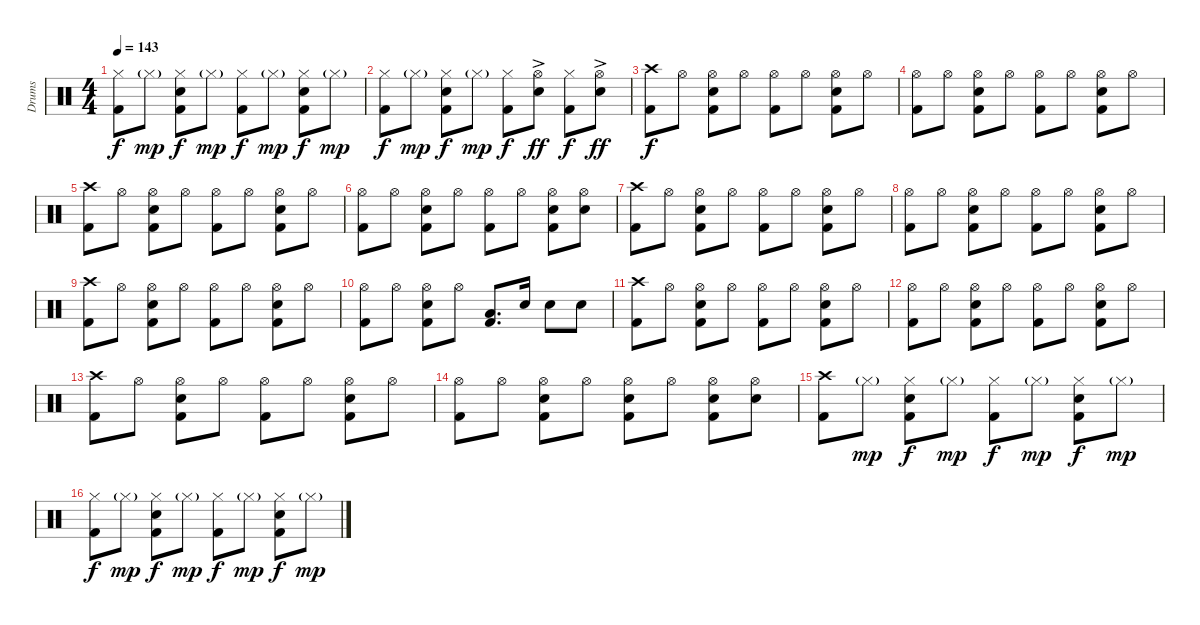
\track ("Drums" "Drums") {instrument percussion}
\staff {score}
\articulation defaults
\ts (4 4)
\tempo 143
\clef neutral
\ks c
("Hi-Hat (closed)" "Kick (hit) 2").8{dy f} "Hi-Hat (closed)"{g}.8{dy mp} ("Hi-Hat (closed)" "Electric Snare (hit)" "Kick (hit) 2").8{dy f} "Hi-Hat (closed)"{g}.8{dy mp} ("Hi-Hat (closed)" "Kick (hit) 2").8{dy f} "Hi-Hat (closed)"{g}.8{dy mp} ("Hi-Hat (closed)" "Electric Snare (hit)" "Kick (hit) 2").8{dy f} "Hi-Hat (closed)"{g}.8{dy mp} |
("Hi-Hat (closed)" "Kick (hit) 2").8{dy f} "Hi-Hat (closed)"{g}.8{dy mp} ("Hi-Hat (closed)" "Electric Snare (hit)" "Kick (hit) 2").8{dy f} "Hi-Hat (closed)"{g}.8{dy mp} ("Hi-Hat (closed)" "Kick (hit) 2").8{dy f} ("Hi-Hat (open)"{ac} "Electric Snare (hit)").8{dy ff} ("Hi-Hat (closed)" "Kick (hit) 2").8{dy f} ("Hi-Hat (open)"{ac} "Electric Snare (hit)").8{dy ff} |
("Crash high (hit)" "Kick (hit) 2").8{dy f} "Hi-Hat (open)".8 ("Hi-Hat (open)" "Electric Snare (hit)" "Kick (hit) 2").8 "Hi-Hat (open)".8 ("Hi-Hat (open)" "Kick (hit) 2").8 "Hi-Hat (open)".8 ("Hi-Hat (open)" "Electric Snare (hit)" "Kick (hit) 2").8 "Hi-Hat (open)".8 |
("Hi-Hat (open)" "Kick (hit) 2").8 "Hi-Hat (open)".8 ("Hi-Hat (open)" "Electric Snare (hit)" "Kick (hit) 2").8 "Hi-Hat (open)".8 ("Hi-Hat (open)" "Kick (hit) 2").8 "Hi-Hat (open)".8 ("Hi-Hat (open)" "Electric Snare (hit)" "Kick (hit) 2").8 "Hi-Hat (open)".8 |
("Crash high (hit)" "Kick (hit) 2").8 "Hi-Hat (open)".8 ("Hi-Hat (open)" "Electric Snare (hit)" "Kick (hit) 2").8 "Hi-Hat (open)".8 ("Hi-Hat (open)" "Kick (hit) 2").8 "Hi-Hat (open)".8 ("Hi-Hat (open)" "Electric Snare (hit)" "Kick (hit) 2").8 "Hi-Hat (open)".8 |
("Hi-Hat (open)" "Kick (hit) 2").8 "Hi-Hat (open)".8 ("Hi-Hat (open)" "Electric Snare (hit)" "Kick (hit) 2").8 "Hi-Hat (open)".8 ("Hi-Hat (open)" "Kick (hit) 2").8 "Hi-Hat (open)".8 ("Hi-Hat (open)" "Electric Snare (hit)" "Kick (hit) 2").8 ("Hi-Hat (open)" "Electric Snare (hit)").8 |
("Crash high (hit)" "Kick (hit) 2").8 "Hi-Hat (open)".8 ("Hi-Hat (open)" "Electric Snare (hit)" "Kick (hit) 2").8 "Hi-Hat (open)".8 ("Hi-Hat (open)" "Kick (hit) 2").8 "Hi-Hat (open)".8 ("Hi-Hat (open)" "Electric Snare (hit)" "Kick (hit) 2").8 "Hi-Hat (open)".8 |
("Hi-Hat (open)" "Kick (hit) 2").8 "Hi-Hat (open)".8 ("Hi-Hat (open)" "Electric Snare (hit)" "Kick (hit) 2").8 "Hi-Hat (open)".8 ("Hi-Hat (open)" "Kick (hit) 2").8 "Hi-Hat (open)".8 ("Hi-Hat (open)" "Electric Snare (hit)" "Kick (hit) 2").8 "Hi-Hat (open)".8 |
("Crash high (hit)" "Kick (hit) 2").8 "Hi-Hat (open)".8 ("Hi-Hat (open)" "Electric Snare (hit)" "Kick (hit) 2").8 "Hi-Hat (open)".8 ("Hi-Hat (open)" "Kick (hit) 2").8 "Hi-Hat (open)".8 ("Hi-Hat (open)" "Electric Snare (hit)" "Kick (hit) 2").8 "Hi-Hat (open)".8 |
("Hi-Hat (open)" "Kick (hit) 2").8 "Hi-Hat (open)".8 ("Hi-Hat (open)" "Electric Snare (hit)" "Kick (hit) 2").8 "Hi-Hat (open)".8 ("Low Floor Tom (hit)" "Kick (hit) 2").8{d} "Electric Snare (hit)".16 "Electric Snare (hit)".8 "Electric Snare (hit)".8 |
("Crash high (hit)" "Kick (hit) 2").8 "Hi-Hat (open)".8 ("Hi-Hat (open)" "Electric Snare (hit)" "Kick (hit) 2").8 "Hi-Hat (open)".8 ("Hi-Hat (open)" "Kick (hit) 2").8 "Hi-Hat (open)".8 ("Hi-Hat (open)" "Electric Snare (hit)" "Kick (hit) 2").8 "Hi-Hat (open)".8 |
("Hi-Hat (open)" "Kick (hit) 2").8 "Hi-Hat (open)".8 ("Hi-Hat (open)" "Electric Snare (hit)" "Kick (hit) 2").8 "Hi-Hat (open)".8 ("Hi-Hat (open)" "Kick (hit) 2").8 "Hi-Hat (open)".8 ("Hi-Hat (open)" "Electric Snare (hit)" "Kick (hit) 2").8 "Hi-Hat (open)".8 |
("Crash high (hit)" "Kick (hit) 2").8 "Hi-Hat (open)".8 ("Hi-Hat (open)" "Electric Snare (hit)" "Kick (hit) 2").8 "Hi-Hat (open)".8 ("Hi-Hat (open)" "Kick (hit) 2").8 "Hi-Hat (open)".8 ("Hi-Hat (open)" "Electric Snare (hit)" "Kick (hit) 2").8 "Hi-Hat (open)".8 |
("Hi-Hat (open)" "Kick (hit) 2").8 "Hi-Hat (open)".8 ("Hi-Hat (open)" "Electric Snare (hit)" "Kick (hit) 2").8 "Hi-Hat (open)".8 ("Hi-Hat (open)" "Electric Snare (hit)" "Kick (hit) 2").8 "Hi-Hat (open)".8 ("Hi-Hat (open)" "Electric Snare (hit)" "Kick (hit) 2").8 ("Hi-Hat (open)" "Electric Snare (hit)").8 |
("Crash high (hit)" "Kick (hit) 2").8 "Hi-Hat (closed)"{g}.8{dy mp} ("Hi-Hat (closed)" "Electric Snare (hit)" "Kick (hit) 2").8{dy f} "Hi-Hat (closed)"{g}.8{dy mp} ("Hi-Hat (closed)" "Kick (hit) 2").8{dy f} "Hi-Hat (closed)"{g}.8{dy mp} ("Hi-Hat (closed)" "Electric Snare (hit)" "Kick (hit) 2").8{dy f} "Hi-Hat (closed)"{g}.8{dy mp} |
("Hi-Hat (closed)" "Kick (hit) 2").8{dy f} "Hi-Hat (closed)"{g}.8{dy mp} ("Hi-Hat (closed)" "Electric Snare (hit)" "Kick (hit) 2").8{dy f} "Hi-Hat (closed)"{g}.8{dy mp} ("Hi-Hat (closed)" "Kick (hit) 2").8{dy f} "Hi-Hat (closed)"{g}.8{dy mp} ("Hi-Hat (closed)" "Electric Snare (hit)" "Kick (hit) 2").8{dy f} "Hi-Hat (closed)"{g}.8{dy mp}
